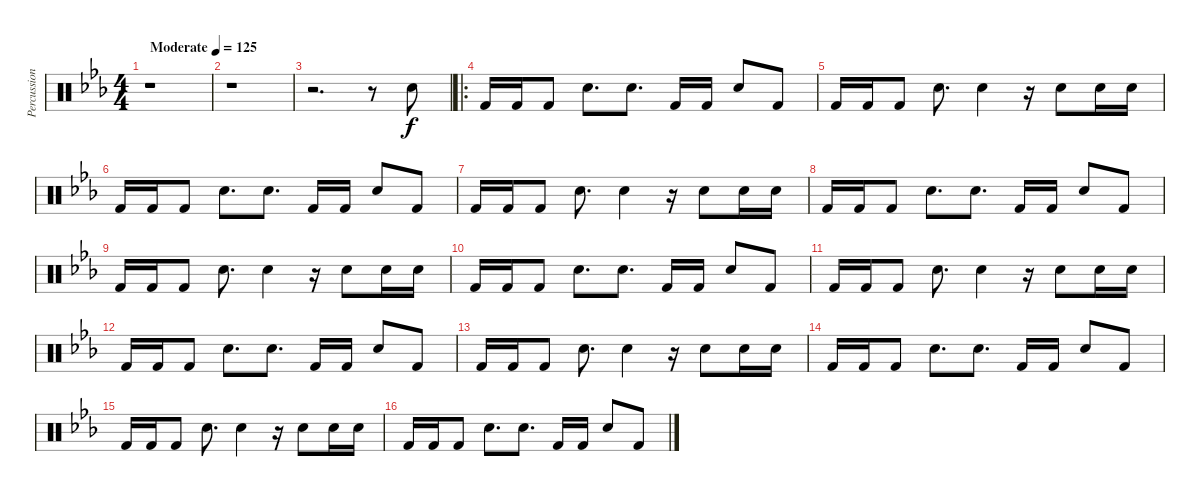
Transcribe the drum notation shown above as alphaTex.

\track ("Percussion" "Percussion") {instrument percussion}
\staff {score}
\articulation defaults
\ts (4 4)
\tempo (125 "Moderate")
\clef neutral
\ks cminor
r.1{dy f} |
r.1 |
r.2{d} r.8 "Electric Snare (hit)".8 |
\ro "Kick (hit) 2".16 "Kick (hit) 2".16 "Kick (hit) 2".8 "Electric Snare (hit)".8{d} "Electric Snare (hit)".8{d} "Kick (hit) 2".16 "Kick (hit) 2".16 "Electric Snare (hit)".8 "Kick (hit) 2".8
|
"Kick (hit) 2".16 "Kick (hit) 2".16 "Kick (hit) 2".8 "Electric Snare (hit)".8{d} "Electric Snare (hit)".4 r.16 "Electric Snare (hit)".8 "Electric Snare (hit)".16 "Electric Snare (hit)".16 |
"Kick (hit) 2".16 "Kick (hit) 2".16 "Kick (hit) 2".8 "Electric Snare (hit)".8{d} "Electric Snare (hit)".8{d} "Kick (hit) 2".16 "Kick (hit) 2".16 "Electric Snare (hit)".8 "Kick (hit) 2".8 |
"Kick (hit) 2".16 "Kick (hit) 2".16 "Kick (hit) 2".8 "Electric Snare (hit)".8{d} "Electric Snare (hit)".4 r.16 "Electric Snare (hit)".8 "Electric Snare (hit)".16 "Electric Snare (hit)".16 |
"Kick (hit) 2".16 "Kick (hit) 2".16 "Kick (hit) 2".8 "Electric Snare (hit)".8{d} "Electric Snare (hit)".8{d} "Kick (hit) 2".16 "Kick (hit) 2".16 "Electric Snare (hit)".8 "Kick (hit) 2".8 |
"Kick (hit) 2".16 "Kick (hit) 2".16 "Kick (hit) 2".8 "Electric Snare (hit)".8{d} "Electric Snare (hit)".4 r.16 "Electric Snare (hit)".8 "Electric Snare (hit)".16 "Electric Snare (hit)".16 |
"Kick (hit) 2".16 "Kick (hit) 2".16 "Kick (hit) 2".8 "Electric Snare (hit)".8{d} "Electric Snare (hit)".8{d} "Kick (hit) 2".16 "Kick (hit) 2".16 "Electric Snare (hit)".8 "Kick (hit) 2".8 |
"Kick (hit) 2".16 "Kick (hit) 2".16 "Kick (hit) 2".8 "Electric Snare (hit)".8{d} "Electric Snare (hit)".4 r.16 "Electric Snare (hit)".8 "Electric Snare (hit)".16 "Electric Snare (hit)".16 |
"Kick (hit) 2".16 "Kick (hit) 2".16 "Kick (hit) 2".8 "Electric Snare (hit)".8{d} "Electric Snare (hit)".8{d} "Kick (hit) 2".16 "Kick (hit) 2".16 "Electric Snare (hit)".8 "Kick (hit) 2".8 |
"Kick (hit) 2".16 "Kick (hit) 2".16 "Kick (hit) 2".8 "Electric Snare (hit)".8{d} "Electric Snare (hit)".4 r.16 "Electric Snare (hit)".8 "Electric Snare (hit)".16 "Electric Snare (hit)".16 |
"Kick (hit) 2".16 "Kick (hit) 2".16 "Kick (hit) 2".8 "Electric Snare (hit)".8{d} "Electric Snare (hit)".8{d} "Kick (hit) 2".16 "Kick (hit) 2".16 "Electric Snare (hit)".8 "Kick (hit) 2".8 |
"Kick (hit) 2".16 "Kick (hit) 2".16 "Kick (hit) 2".8 "Electric Snare (hit)".8{d} "Electric Snare (hit)".4 r.16 "Electric Snare (hit)".8 "Electric Snare (hit)".16 "Electric Snare (hit)".16 |
"Kick (hit) 2".16 "Kick (hit) 2".16 "Kick (hit) 2".8 "Electric Snare (hit)".8{d} "Electric Snare (hit)".8{d} "Kick (hit) 2".16 "Kick (hit) 2".16 "Electric Snare (hit)".8 "Kick (hit) 2".8
